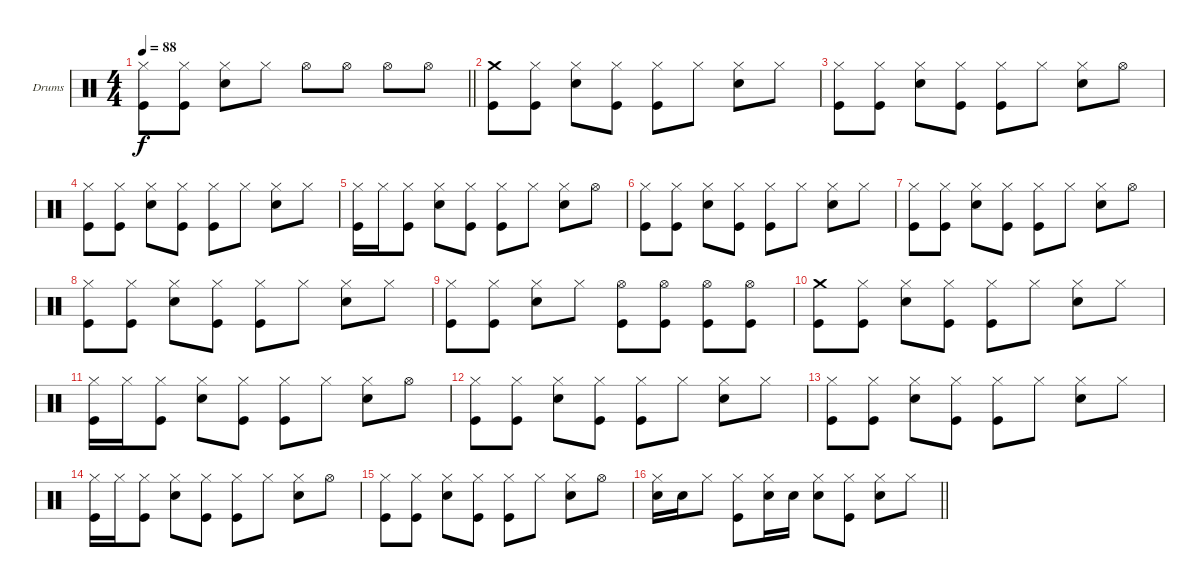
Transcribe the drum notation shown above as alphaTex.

\bracketExtendMode groupsimilarinstruments
\firstSystemTrackNameOrientation horizontal
\otherSystemsTrackNameOrientation horizontal
\track ("Drumkit" "Drums") {instrument percussion}
\staff {score}
\articulation defaults
\ts (4 4)
\tempo 88
\clef neutral
\barLineRight lightlight
\ks c
("Kick (hit)" "Hi-Hat (closed)").8{dy f} ("Kick (hit)" "Hi-Hat (closed)").8 ("Snare (hit) 2" "Hi-Hat (closed)").8 "Hi-Hat (closed)".8 "Hi-Hat (open)".8 "Hi-Hat (open)".8 "Hi-Hat (open)".8 "Hi-Hat (open)".8 |
("Kick (hit)" "Crash medium (hit)").8 ("Kick (hit)" "Hi-Hat (closed)").8 ("Snare (hit) 2" "Hi-Hat (closed)").8 ("Kick (hit)" "Hi-Hat (closed)").8 ("Kick (hit)" "Hi-Hat (closed)").8 "Hi-Hat (closed)".8 ("Snare (hit) 2" "Hi-Hat (closed)").8 "Hi-Hat (closed)".8 |
("Kick (hit)" "Hi-Hat (closed)").8 ("Kick (hit)" "Hi-Hat (closed)").8 ("Snare (hit) 2" "Hi-Hat (closed)").8 ("Kick (hit)" "Hi-Hat (closed)").8 ("Kick (hit)" "Hi-Hat (closed)").8 "Hi-Hat (closed)".8 ("Snare (hit) 2" "Hi-Hat (closed)").8 "Hi-Hat (open)".8 |
("Kick (hit)" "Hi-Hat (closed)").8 ("Kick (hit)" "Hi-Hat (closed)").8 ("Snare (hit) 2" "Hi-Hat (closed)").8 ("Kick (hit)" "Hi-Hat (closed)").8 ("Kick (hit)" "Hi-Hat (closed)").8 "Hi-Hat (closed)".8 ("Snare (hit) 2" "Hi-Hat (closed)").8 "Hi-Hat (closed)".8 |
("Kick (hit)" "Hi-Hat (closed)").16 "Hi-Hat (closed)".16 ("Kick (hit)" "Hi-Hat (closed)").8 ("Snare (hit) 2" "Hi-Hat (closed)").8 ("Kick (hit)" "Hi-Hat (closed)").8 ("Kick (hit)" "Hi-Hat (closed)").8 "Hi-Hat (closed)".8 ("Snare (hit) 2" "Hi-Hat (closed)").8 "Hi-Hat (open)".8 |
("Kick (hit)" "Hi-Hat (closed)").8 ("Kick (hit)" "Hi-Hat (closed)").8 ("Snare (hit) 2" "Hi-Hat (closed)").8 ("Kick (hit)" "Hi-Hat (closed)").8 ("Kick (hit)" "Hi-Hat (closed)").8 "Hi-Hat (closed)".8 ("Snare (hit) 2" "Hi-Hat (closed)").8 "Hi-Hat (closed)".8 |
("Kick (hit)" "Hi-Hat (closed)").8 ("Kick (hit)" "Hi-Hat (closed)").8 ("Snare (hit) 2" "Hi-Hat (closed)").8 ("Kick (hit)" "Hi-Hat (closed)").8 ("Kick (hit)" "Hi-Hat (closed)").8 "Hi-Hat (closed)".8 ("Snare (hit) 2" "Hi-Hat (closed)").8 "Hi-Hat (open)".8 |
("Kick (hit)" "Hi-Hat (closed)").8 ("Kick (hit)" "Hi-Hat (closed)").8 ("Snare (hit) 2" "Hi-Hat (closed)").8 ("Kick (hit)" "Hi-Hat (closed)").8 ("Kick (hit)" "Hi-Hat (closed)").8 "Hi-Hat (closed)".8 ("Snare (hit) 2" "Hi-Hat (closed)").8 "Hi-Hat (closed)".8 |
("Kick (hit)" "Hi-Hat (closed)").8 ("Kick (hit)" "Hi-Hat (closed)").8 ("Snare (hit) 2" "Hi-Hat (closed)").8 "Hi-Hat (closed)".8 ("Kick (hit)" "Hi-Hat (open)").8 ("Kick (hit)" "Hi-Hat (open)").8 ("Kick (hit)" "Hi-Hat (open)").8 ("Kick (hit)" "Hi-Hat (open)").8 |
("Kick (hit)" "Crash medium (hit)").8 ("Kick (hit)" "Hi-Hat (closed)").8 ("Snare (hit) 2" "Hi-Hat (closed)").8 ("Kick (hit)" "Hi-Hat (closed)").8 ("Kick (hit)" "Hi-Hat (closed)").8 "Hi-Hat (closed)".8 ("Snare (hit) 2" "Hi-Hat (closed)").8 "Hi-Hat (closed)".8 |
("Kick (hit)" "Hi-Hat (closed)").16 "Hi-Hat (closed)".16 ("Kick (hit)" "Hi-Hat (closed)").8 ("Snare (hit) 2" "Hi-Hat (closed)").8 ("Kick (hit)" "Hi-Hat (closed)").8 ("Kick (hit)" "Hi-Hat (closed)").8 "Hi-Hat (closed)".8 ("Snare (hit) 2" "Hi-Hat (closed)").8 "Hi-Hat (open)".8 |
("Kick (hit)" "Hi-Hat (closed)").8 ("Kick (hit)" "Hi-Hat (closed)").8 ("Snare (hit) 2" "Hi-Hat (closed)").8 ("Kick (hit)" "Hi-Hat (closed)").8 ("Kick (hit)" "Hi-Hat (closed)").8 "Hi-Hat (closed)".8 ("Snare (hit) 2" "Hi-Hat (closed)").8 "Hi-Hat (closed)".8 |
("Kick (hit)" "Hi-Hat (closed)").8 ("Kick (hit)" "Hi-Hat (closed)").8 ("Snare (hit) 2" "Hi-Hat (closed)").8 ("Kick (hit)" "Hi-Hat (closed)").8 ("Kick (hit)" "Hi-Hat (closed)").8 "Hi-Hat (closed)".8 ("Snare (hit) 2" "Hi-Hat (closed)").8 "Hi-Hat (closed)".8 |
("Kick (hit)" "Hi-Hat (closed)").16 "Hi-Hat (closed)".16 ("Kick (hit)" "Hi-Hat (closed)").8 ("Snare (hit) 2" "Hi-Hat (closed)").8 ("Kick (hit)" "Hi-Hat (closed)").8 ("Kick (hit)" "Hi-Hat (closed)").8 "Hi-Hat (closed)".8 ("Snare (hit) 2" "Hi-Hat (closed)").8 "Hi-Hat (open)".8 |
("Kick (hit)" "Hi-Hat (closed)").8 ("Kick (hit)" "Hi-Hat (closed)").8 ("Snare (hit) 2" "Hi-Hat (closed)").8 ("Kick (hit)" "Hi-Hat (closed)").8 ("Kick (hit)" "Hi-Hat (closed)").8 "Hi-Hat (closed)".8 ("Snare (hit) 2" "Hi-Hat (closed)").8 "Hi-Hat (open)".8 |
\barLineRight lightlight
("Snare (hit) 2" "Hi-Hat (closed)").16 "Snare (hit) 2".16 "Hi-Hat (closed)".8 ("Kick (hit)" "Hi-Hat (closed)").8 ("Snare (hit) 2" "Hi-Hat (closed)").16 "Snare (hit) 2".16 ("Snare (hit) 2" "Hi-Hat (closed)").8 ("Kick (hit)" "Hi-Hat (closed)").8 ("Snare (hit) 2" "Hi-Hat (closed)").8 "Hi-Hat (closed)".8
